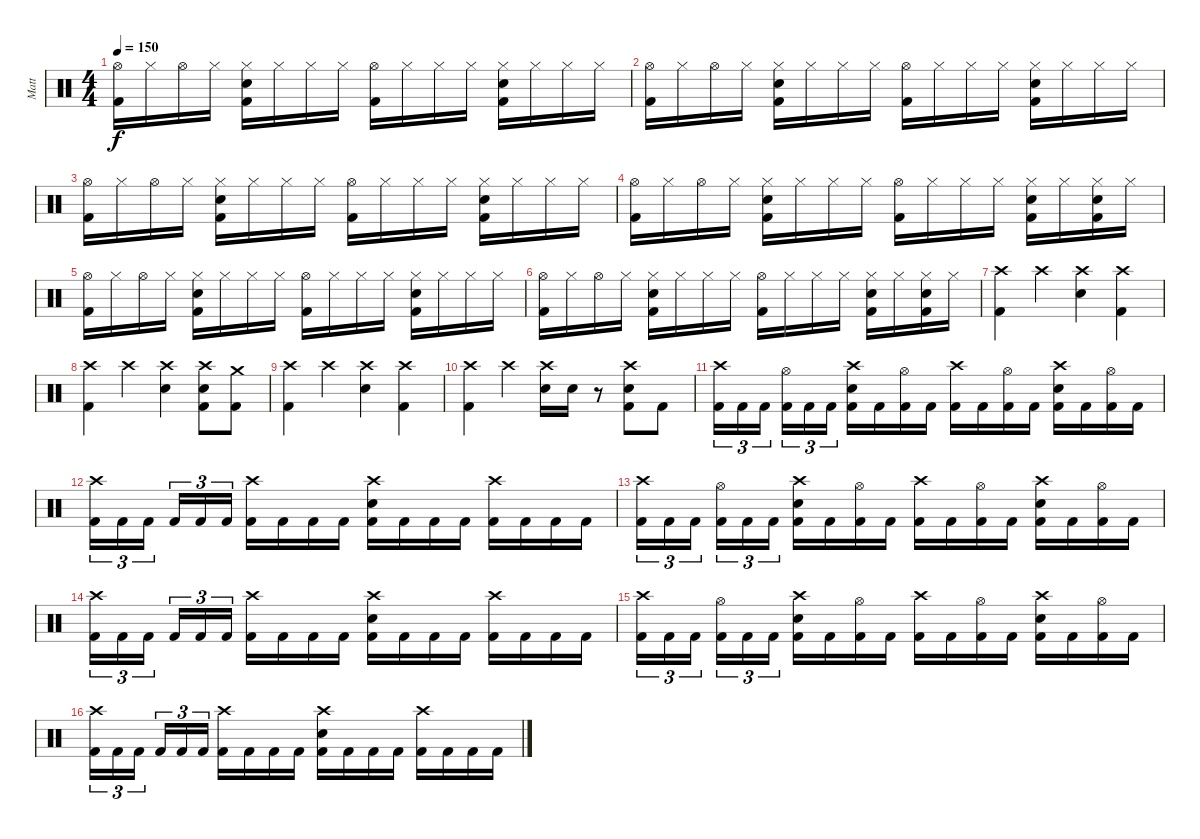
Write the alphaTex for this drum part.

\track ("Matt" "Matt") {instrument percussion}
\staff {score}
\articulation defaults
\ts (4 4)
\tempo 150
\clef neutral
\ks c
("Hi-Hat (open)" "Kick (hit) 2").16{dy f volume 16} "Hi-Hat (closed)".16 "Hi-Hat (open)".16 "Hi-Hat (closed)".16 ("Hi-Hat (closed)" "Snare (hit) 2" "Kick (hit) 2").16 "Hi-Hat (closed)".16 "Hi-Hat (closed)".16 "Hi-Hat (closed)".16 ("Hi-Hat (open)" "Kick (hit) 2").16 "Hi-Hat (closed)".16 "Hi-Hat (closed)".16 "Hi-Hat (closed)".16 ("Hi-Hat (closed)" "Snare (hit) 2" "Kick (hit) 2").16 "Hi-Hat (closed)".16 "Hi-Hat (closed)".16 "Hi-Hat (closed)".16 |
("Hi-Hat (open)" "Kick (hit) 2").16{volume 16} "Hi-Hat (closed)".16 "Hi-Hat (open)".16 "Hi-Hat (closed)".16 ("Hi-Hat (closed)" "Snare (hit) 2" "Kick (hit) 2").16 "Hi-Hat (closed)".16 "Hi-Hat (closed)".16 "Hi-Hat (closed)".16 ("Hi-Hat (open)" "Kick (hit) 2").16 "Hi-Hat (closed)".16 "Hi-Hat (closed)".16 "Hi-Hat (closed)".16 ("Hi-Hat (closed)" "Snare (hit) 2" "Kick (hit) 2").16 "Hi-Hat (closed)".16 "Hi-Hat (closed)".16 "Hi-Hat (closed)".16 |
("Hi-Hat (open)" "Kick (hit) 2").16{volume 16} "Hi-Hat (closed)".16 "Hi-Hat (open)".16 "Hi-Hat (closed)".16 ("Hi-Hat (closed)" "Snare (hit) 2" "Kick (hit) 2").16 "Hi-Hat (closed)".16 "Hi-Hat (closed)".16 "Hi-Hat (closed)".16 ("Hi-Hat (open)" "Kick (hit) 2").16 "Hi-Hat (closed)".16 "Hi-Hat (closed)".16 "Hi-Hat (closed)".16 ("Hi-Hat (closed)" "Snare (hit) 2" "Kick (hit) 2").16 "Hi-Hat (closed)".16 "Hi-Hat (closed)".16 "Hi-Hat (closed)".16 |
("Hi-Hat (open)" "Kick (hit) 2").16{volume 16} "Hi-Hat (closed)".16 "Hi-Hat (open)".16 "Hi-Hat (closed)".16 ("Hi-Hat (closed)" "Snare (hit) 2" "Kick (hit) 2").16 "Hi-Hat (closed)".16 "Hi-Hat (closed)".16 "Hi-Hat (closed)".16 ("Hi-Hat (open)" "Kick (hit) 2").16 "Hi-Hat (closed)".16 "Hi-Hat (closed)".16 "Hi-Hat (closed)".16 ("Hi-Hat (closed)" "Snare (hit) 2" "Kick (hit) 2").16 "Hi-Hat (closed)".16 ("Hi-Hat (closed)" "Snare (hit) 2" "Kick (hit) 2").16 "Hi-Hat (closed)".16 |
("Hi-Hat (open)" "Kick (hit) 2").16{volume 16} "Hi-Hat (closed)".16 "Hi-Hat (open)".16 "Hi-Hat (closed)".16 ("Hi-Hat (closed)" "Snare (hit) 2" "Kick (hit) 2").16 "Hi-Hat (closed)".16 "Hi-Hat (closed)".16 "Hi-Hat (closed)".16 ("Hi-Hat (open)" "Kick (hit) 2").16 "Hi-Hat (closed)".16 "Hi-Hat (closed)".16 "Hi-Hat (closed)".16 ("Hi-Hat (closed)" "Snare (hit) 2" "Kick (hit) 2").16 "Hi-Hat (closed)".16 "Hi-Hat (closed)".16 "Hi-Hat (closed)".16 |
("Hi-Hat (open)" "Kick (hit) 2").16{volume 16} "Hi-Hat (closed)".16 "Hi-Hat (open)".16 "Hi-Hat (closed)".16 ("Hi-Hat (closed)" "Snare (hit) 2" "Kick (hit) 2").16 "Hi-Hat (closed)".16 "Hi-Hat (closed)".16 "Hi-Hat (closed)".16 ("Hi-Hat (open)" "Kick (hit) 2").16 "Hi-Hat (closed)".16 "Hi-Hat (closed)".16 "Hi-Hat (closed)".16 ("Hi-Hat (closed)" "Snare (hit) 2" "Kick (hit) 2").16 "Hi-Hat (closed)".16 ("Hi-Hat (closed)" "Snare (hit) 2" "Kick (hit) 2").16 "Hi-Hat (closed)".16 |
("Crash high (hit)" "Kick (hit) 2").4 "Crash high (hit)".4 ("Crash high (hit)" "Snare (hit) 2").4 ("Crash high (hit)" "Kick (hit) 2").4 |
("Crash high (hit)" "Kick (hit) 2").4 "Crash high (hit)".4 ("Crash high (hit)" "Snare (hit) 2").4 ("Crash high (hit)" "Snare (hit) 2" "Kick (hit) 2").8 ("Crash medium (hit)" "Kick (hit) 2").8 |
("Crash high (hit)" "Kick (hit) 2").4 "Crash high (hit)".4 ("Crash high (hit)" "Snare (hit) 2").4 ("Crash high (hit)" "Kick (hit) 2").4 |
("Crash high (hit)" "Kick (hit) 2").4 "Crash high (hit)".4 ("Crash high (hit)" "Snare (hit) 2").16 "Snare (hit) 2".16 r.8 ("Crash high (hit)" "Snare (hit) 2" "Kick (hit) 2").8 "Kick (hit) 2".8 |
("Crash high (hit)" "Kick (hit) 2").16{tu (3 2)} "Kick (hit) 2".16{tu (3 2)} "Kick (hit) 2".16{tu (3 2)} ("Hi-Hat (open)" "Kick (hit) 2").16{tu (3 2)} "Kick (hit) 2".16{tu (3 2)} "Kick (hit) 2".16{tu (3 2)} ("Crash high (hit)" "Snare (hit) 2" "Kick (hit) 2").16 "Kick (hit) 2".16 ("Hi-Hat (open)" "Kick (hit) 2").16 "Kick (hit) 2".16 ("Crash high (hit)" "Kick (hit) 2").16 "Kick (hit) 2".16 ("Hi-Hat (open)" "Kick (hit) 2").16 "Kick (hit) 2".16 ("Crash high (hit)" "Snare (hit) 2" "Kick (hit) 2").16 "Kick (hit) 2".16 ("Hi-Hat (open)" "Kick (hit) 2").16 "Kick (hit) 2".16 |
("Crash high (hit)" "Kick (hit) 2").16{tu (3 2)} "Kick (hit) 2".16{tu (3 2)} "Kick (hit) 2".16{tu (3 2)} "Kick (hit) 2".16{tu (3 2)} "Kick (hit) 2".16{tu (3 2)} "Kick (hit) 2".16{tu (3 2)} ("Crash high (hit)" "Kick (hit) 2").16 "Kick (hit) 2".16 "Kick (hit) 2".16 "Kick (hit) 2".16 ("Crash high (hit)" "Snare (hit) 2" "Kick (hit) 2").16 "Kick (hit) 2".16 "Kick (hit) 2".16 "Kick (hit) 2".16 ("Crash high (hit)" "Kick (hit) 2").16 "Kick (hit) 2".16 "Kick (hit) 2".16 "Kick (hit) 2".16 |
("Crash high (hit)" "Kick (hit) 2").16{tu (3 2)} "Kick (hit) 2".16{tu (3 2)} "Kick (hit) 2".16{tu (3 2)} ("Hi-Hat (open)" "Kick (hit) 2").16{tu (3 2)} "Kick (hit) 2".16{tu (3 2)} "Kick (hit) 2".16{tu (3 2)} ("Crash high (hit)" "Snare (hit) 2" "Kick (hit) 2").16 "Kick (hit) 2".16 ("Hi-Hat (open)" "Kick (hit) 2").16 "Kick (hit) 2".16 ("Crash high (hit)" "Kick (hit) 2").16 "Kick (hit) 2".16 ("Hi-Hat (open)" "Kick (hit) 2").16 "Kick (hit) 2".16 ("Crash high (hit)" "Snare (hit) 2" "Kick (hit) 2").16 "Kick (hit) 2".16 ("Hi-Hat (open)" "Kick (hit) 2").16 "Kick (hit) 2".16 |
("Crash high (hit)" "Kick (hit) 2").16{tu (3 2)} "Kick (hit) 2".16{tu (3 2)} "Kick (hit) 2".16{tu (3 2)} "Kick (hit) 2".16{tu (3 2)} "Kick (hit) 2".16{tu (3 2)} "Kick (hit) 2".16{tu (3 2)} ("Crash high (hit)" "Kick (hit) 2").16 "Kick (hit) 2".16 "Kick (hit) 2".16 "Kick (hit) 2".16 ("Crash high (hit)" "Snare (hit) 2" "Kick (hit) 2").16 "Kick (hit) 2".16 "Kick (hit) 2".16 "Kick (hit) 2".16 ("Crash high (hit)" "Kick (hit) 2").16 "Kick (hit) 2".16 "Kick (hit) 2".16 "Kick (hit) 2".16 |
("Crash high (hit)" "Kick (hit) 2").16{tu (3 2)} "Kick (hit) 2".16{tu (3 2)} "Kick (hit) 2".16{tu (3 2)} ("Hi-Hat (open)" "Kick (hit) 2").16{tu (3 2)} "Kick (hit) 2".16{tu (3 2)} "Kick (hit) 2".16{tu (3 2)} ("Crash high (hit)" "Snare (hit) 2" "Kick (hit) 2").16 "Kick (hit) 2".16 ("Hi-Hat (open)" "Kick (hit) 2").16 "Kick (hit) 2".16 ("Crash high (hit)" "Kick (hit) 2").16 "Kick (hit) 2".16 ("Hi-Hat (open)" "Kick (hit) 2").16 "Kick (hit) 2".16 ("Crash high (hit)" "Snare (hit) 2" "Kick (hit) 2").16 "Kick (hit) 2".16 ("Hi-Hat (open)" "Kick (hit) 2").16 "Kick (hit) 2".16 |
("Crash high (hit)" "Kick (hit) 2").16{tu (3 2)} "Kick (hit) 2".16{tu (3 2)} "Kick (hit) 2".16{tu (3 2)} "Kick (hit) 2".16{tu (3 2)} "Kick (hit) 2".16{tu (3 2)} "Kick (hit) 2".16{tu (3 2)} ("Crash high (hit)" "Kick (hit) 2").16 "Kick (hit) 2".16 "Kick (hit) 2".16 "Kick (hit) 2".16 ("Crash high (hit)" "Snare (hit) 2" "Kick (hit) 2").16 "Kick (hit) 2".16 "Kick (hit) 2".16 "Kick (hit) 2".16 ("Crash high (hit)" "Kick (hit) 2").16 "Kick (hit) 2".16 "Kick (hit) 2".16 "Kick (hit) 2".16
